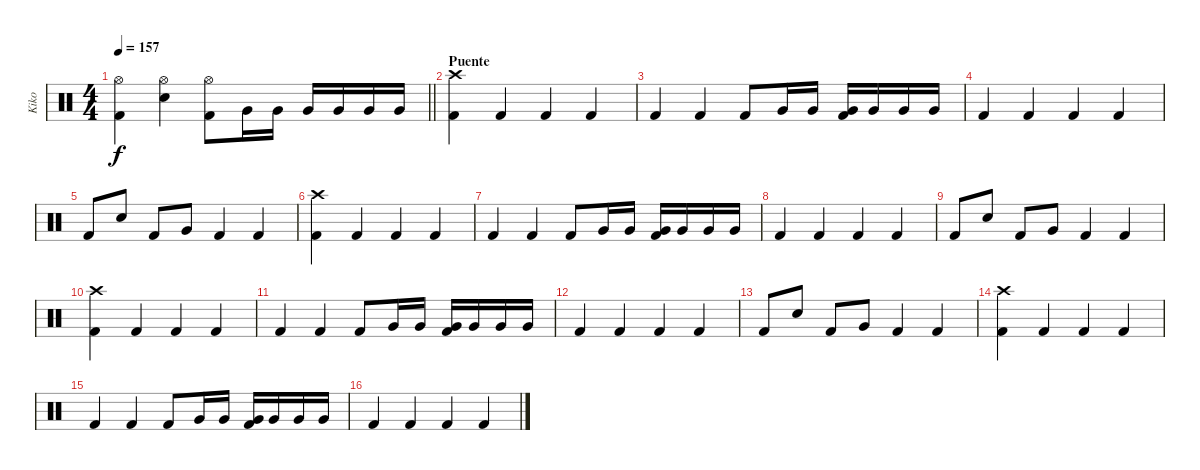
\track ("Kiko" "Kiko") {instrument percussion}
\staff {score}
\articulation defaults
\ts (4 4)
\tempo 157
\clef neutral
\barLineRight lightlight
\ks c
("Hi-Hat (open)" "Kick (hit) 2").4{dy f} ("Hi-Hat (open)" "Electric Snare (hit)").4 ("Hi-Hat (open)" "Kick (hit) 2").8 "Very Low Tom (hit)".16 "Very Low Tom (hit)".16 "Very Low Tom (hit)".16 "Very Low Tom (hit)".16 "Very Low Tom (hit)".16 "Very Low Tom (hit)".16 |
\section ("" "Puente")
("Crash high (hit)" "Kick (hit) 2").4 "Kick (hit) 2".4 "Kick (hit) 2".4 "Kick (hit) 2".4 |
"Kick (hit) 2".4 "Kick (hit) 2".4 "Kick (hit) 2".8 "Very Low Tom (hit)".16 "Very Low Tom (hit)".16 ("Very Low Tom (hit)" "Kick (hit) 2").16 "Very Low Tom (hit)".16 "Very Low Tom (hit)".16 "Very Low Tom (hit)".16 |
"Kick (hit) 2".4 "Kick (hit) 2".4 "Kick (hit) 2".4 "Kick (hit) 2".4 |
"Kick (hit) 2".8 "Electric Snare (hit)".8 "Kick (hit) 2".8 "Very Low Tom (hit)".8 "Kick (hit) 2".4 "Kick (hit) 2".4 |
("Crash high (hit)" "Kick (hit) 2").4 "Kick (hit) 2".4 "Kick (hit) 2".4 "Kick (hit) 2".4 |
"Kick (hit) 2".4 "Kick (hit) 2".4 "Kick (hit) 2".8 "Very Low Tom (hit)".16 "Very Low Tom (hit)".16 ("Very Low Tom (hit)" "Kick (hit) 2").16 "Very Low Tom (hit)".16 "Very Low Tom (hit)".16 "Very Low Tom (hit)".16 |
"Kick (hit) 2".4 "Kick (hit) 2".4 "Kick (hit) 2".4 "Kick (hit) 2".4 |
"Kick (hit) 2".8 "Electric Snare (hit)".8 "Kick (hit) 2".8 "Very Low Tom (hit)".8 "Kick (hit) 2".4 "Kick (hit) 2".4 |
("Crash high (hit)" "Kick (hit) 2").4 "Kick (hit) 2".4 "Kick (hit) 2".4 "Kick (hit) 2".4 |
"Kick (hit) 2".4 "Kick (hit) 2".4 "Kick (hit) 2".8 "Very Low Tom (hit)".16 "Very Low Tom (hit)".16 ("Very Low Tom (hit)" "Kick (hit) 2").16 "Very Low Tom (hit)".16 "Very Low Tom (hit)".16 "Very Low Tom (hit)".16 |
"Kick (hit) 2".4 "Kick (hit) 2".4 "Kick (hit) 2".4 "Kick (hit) 2".4 |
"Kick (hit) 2".8 "Electric Snare (hit)".8 "Kick (hit) 2".8 "Very Low Tom (hit)".8 "Kick (hit) 2".4 "Kick (hit) 2".4 |
("Crash high (hit)" "Kick (hit) 2").4 "Kick (hit) 2".4 "Kick (hit) 2".4 "Kick (hit) 2".4 |
"Kick (hit) 2".4 "Kick (hit) 2".4 "Kick (hit) 2".8 "Very Low Tom (hit)".16 "Very Low Tom (hit)".16 ("Very Low Tom (hit)" "Kick (hit) 2").16 "Very Low Tom (hit)".16 "Very Low Tom (hit)".16 "Very Low Tom (hit)".16 |
"Kick (hit) 2".4 "Kick (hit) 2".4 "Kick (hit) 2".4 "Kick (hit) 2".4
